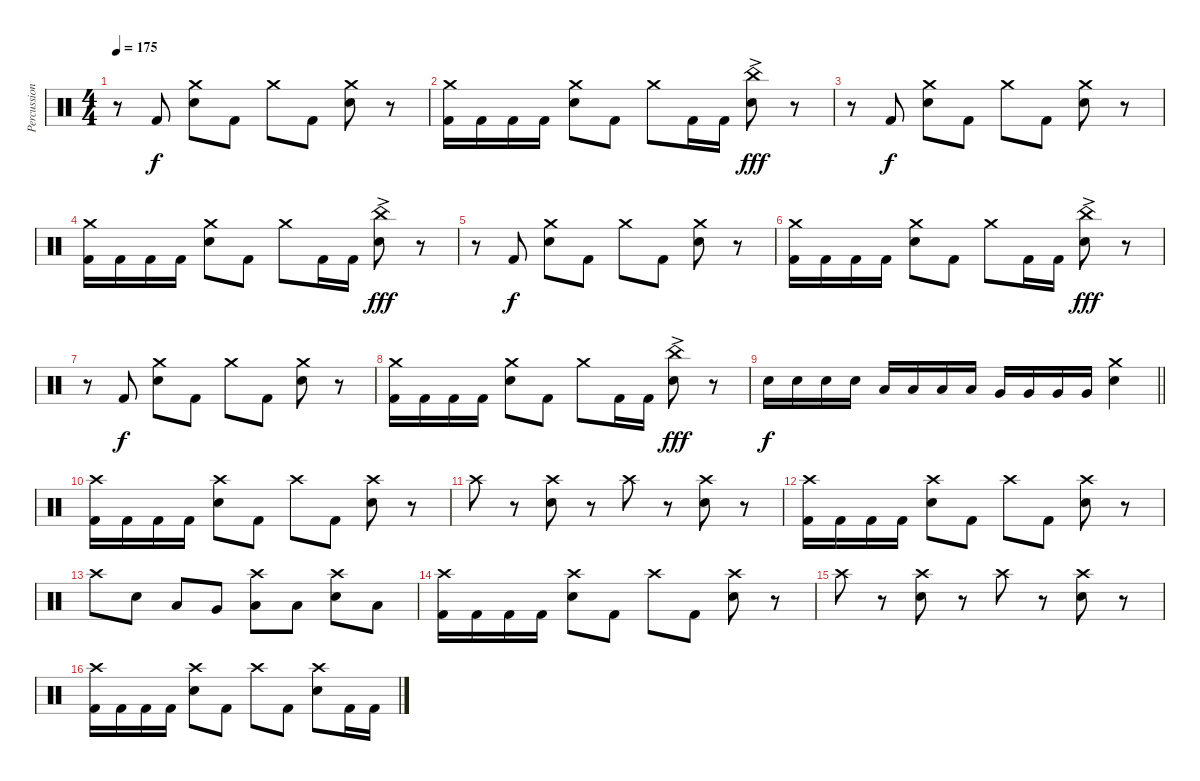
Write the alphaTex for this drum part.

\track ("Percussion (Moose)" "Percussion") {instrument percussion}
\staff {score}
\articulation defaults
\ts (4 4)
\tempo 175
\clef neutral
\ks c
r.8{dy fff} "Kick (hit) 2".8{dy f} ("Crash medium (hit)" "Electric Snare (hit)").8 "Kick (hit) 2".8 "Crash medium (hit)".8 "Kick (hit) 2".8 ("Crash medium (hit)" "Electric Snare (hit)").8 r.8 |
("Crash medium (hit)" "Kick (hit) 2").16 "Kick (hit) 2".16 "Kick (hit) 2".16 "Kick (hit) 2".16 ("Crash medium (hit)" "Electric Snare (hit)").8 "Kick (hit) 2".8 "Crash medium (hit)".8 "Kick (hit) 2".16 "Kick (hit) 2".16 ("China (hit)"{ac} "Electric Snare (hit)").8{dy fff} r.8 |
r.8 "Kick (hit) 2".8{dy f} ("Crash medium (hit)" "Electric Snare (hit)").8 "Kick (hit) 2".8 "Crash medium (hit)".8 "Kick (hit) 2".8 ("Crash medium (hit)" "Electric Snare (hit)").8 r.8 |
("Crash medium (hit)" "Kick (hit) 2").16 "Kick (hit) 2".16 "Kick (hit) 2".16 "Kick (hit) 2".16 ("Crash medium (hit)" "Electric Snare (hit)").8 "Kick (hit) 2".8 "Crash medium (hit)".8 "Kick (hit) 2".16 "Kick (hit) 2".16 ("China (hit)"{ac} "Electric Snare (hit)").8{dy fff} r.8 |
r.8 "Kick (hit) 2".8{dy f} ("Crash medium (hit)" "Electric Snare (hit)").8 "Kick (hit) 2".8 "Crash medium (hit)".8 "Kick (hit) 2".8 ("Crash medium (hit)" "Electric Snare (hit)").8 r.8 |
("Crash medium (hit)" "Kick (hit) 2").16 "Kick (hit) 2".16 "Kick (hit) 2".16 "Kick (hit) 2".16 ("Crash medium (hit)" "Electric Snare (hit)").8 "Kick (hit) 2".8 "Crash medium (hit)".8 "Kick (hit) 2".16 "Kick (hit) 2".16 ("China (hit)"{ac} "Electric Snare (hit)").8{dy fff} r.8 |
r.8 "Kick (hit) 2".8{dy f} ("Crash medium (hit)" "Electric Snare (hit)").8 "Kick (hit) 2".8 "Crash medium (hit)".8 "Kick (hit) 2".8 ("Crash medium (hit)" "Electric Snare (hit)").8 r.8 |
("Crash medium (hit)" "Kick (hit) 2").16 "Kick (hit) 2".16 "Kick (hit) 2".16 "Kick (hit) 2".16 ("Crash medium (hit)" "Electric Snare (hit)").8 "Kick (hit) 2".8 "Crash medium (hit)".8 "Kick (hit) 2".16 "Kick (hit) 2".16 ("China (hit)"{ac} "Electric Snare (hit)").8{dy fff} r.8 |
\barLineRight lightlight "Electric Snare (hit)".16{dy f} "Electric Snare (hit)".16 "Electric Snare (hit)".16 "Electric Snare (hit)".16 "Low Tom (hit)".16 "Low Tom (hit)".16 "Low Tom (hit)".16 "Low Tom (hit)".16 "Very Low Tom (hit)".16 "Very Low Tom (hit)".16 "Very Low Tom (hit)".16 "Very Low Tom (hit)".16
("Crash medium (hit)" "Electric Snare (hit)").4 |
("Crash high (hit)" "Kick (hit) 2").16 "Kick (hit) 2".16 "Kick (hit) 2".16 "Kick (hit) 2".16 ("Crash high (hit)" "Electric Snare (hit)").8 "Kick (hit) 2".8 "Crash high (hit)".8 "Kick (hit) 2".8 ("Crash high (hit)" "Electric Snare (hit)").8 r.8 |
"Crash high (hit)".8 r.8 ("Crash high (hit)" "Electric Snare (hit)").8 r.8 "Crash high (hit)".8 r.8 ("Crash high (hit)" "Electric Snare (hit)").8 r.8 |
("Crash high (hit)" "Kick (hit) 2").16 "Kick (hit) 2".16 "Kick (hit) 2".16 "Kick (hit) 2".16 ("Crash high (hit)" "Electric Snare (hit)").8 "Kick (hit) 2".8 "Crash high (hit)".8 "Kick (hit) 2".8 ("Crash high (hit)" "Electric Snare (hit)").8 r.8 |
"Crash high (hit)".8 "Electric Snare (hit)".8 "Low Tom (hit)".8 "Very Low Tom (hit)".8 ("Crash high (hit)" "Low Floor Tom (hit)").8 "Low Floor Tom (hit)".8 ("Crash high (hit)" "Electric Snare (hit)").8 "Low Floor Tom (hit)".8 |
("Crash high (hit)" "Kick (hit) 2").16 "Kick (hit) 2".16 "Kick (hit) 2".16 "Kick (hit) 2".16 ("Crash high (hit)" "Electric Snare (hit)").8 "Kick (hit) 2".8 "Crash high (hit)".8 "Kick (hit) 2".8 ("Crash high (hit)" "Electric Snare (hit)").8 r.8 |
"Crash high (hit)".8 r.8 ("Crash high (hit)" "Electric Snare (hit)").8 r.8 "Crash high (hit)".8 r.8 ("Crash high (hit)" "Electric Snare (hit)").8 r.8 |
("Crash high (hit)" "Kick (hit) 2").16 "Kick (hit) 2".16 "Kick (hit) 2".16 "Kick (hit) 2".16 ("Crash high (hit)" "Electric Snare (hit)").8 "Kick (hit) 2".8 "Crash high (hit)".8 "Kick (hit) 2".8 ("Crash high (hit)" "Electric Snare (hit)").8 "Kick (hit) 2".16 "Kick (hit) 2".16
